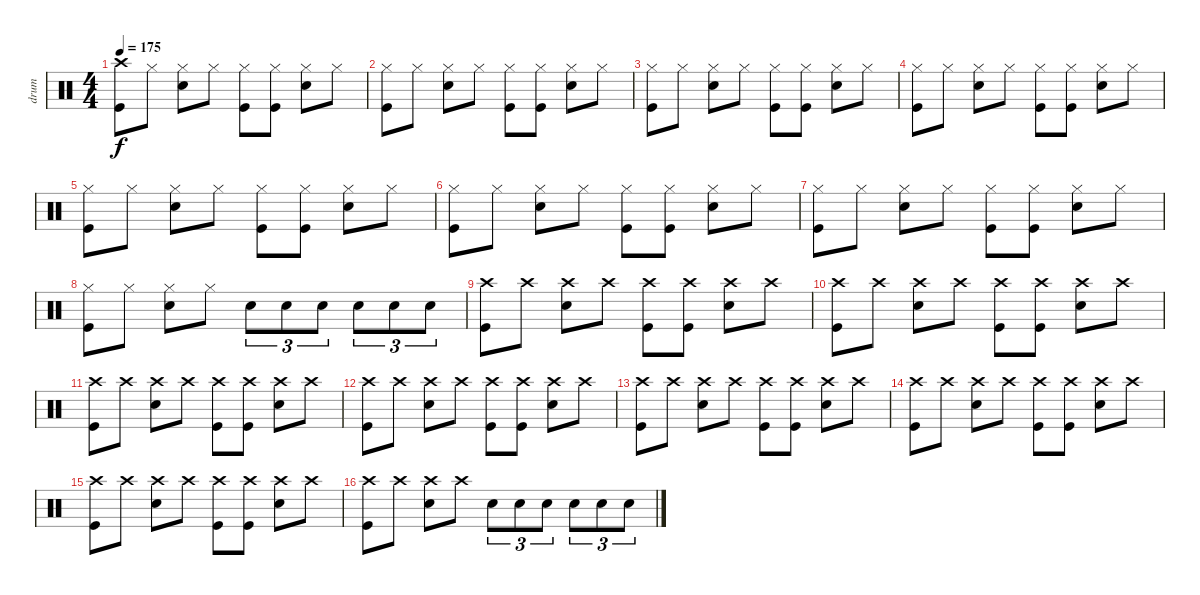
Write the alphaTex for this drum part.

\track ("drum" "drum") {instrument percussion}
\staff {score}
\articulation defaults
\ts (4 4)
\tempo 175
\clef neutral
\ks c
("Crash high (hit)" "Kick (hit)").8{dy f} "Hi-Hat (closed)".8 ("Hi-Hat (closed)" "Snare (hit) 2").8 "Hi-Hat (closed)".8 ("Hi-Hat (closed)" "Kick (hit)").8 ("Hi-Hat (closed)" "Kick (hit)").8 ("Hi-Hat (closed)" "Snare (hit) 2").8 "Hi-Hat (closed)".8 |
("Hi-Hat (closed)" "Kick (hit)").8 "Hi-Hat (closed)".8 ("Hi-Hat (closed)" "Snare (hit) 2").8 "Hi-Hat (closed)".8 ("Hi-Hat (closed)" "Kick (hit)").8 ("Hi-Hat (closed)" "Kick (hit)").8 ("Hi-Hat (closed)" "Snare (hit) 2").8 "Hi-Hat (closed)".8 |
("Hi-Hat (closed)" "Kick (hit)").8 "Hi-Hat (closed)".8 ("Hi-Hat (closed)" "Snare (hit) 2").8 "Hi-Hat (closed)".8 ("Hi-Hat (closed)" "Kick (hit)").8 ("Hi-Hat (closed)" "Kick (hit)").8 ("Hi-Hat (closed)" "Snare (hit) 2").8 "Hi-Hat (closed)".8 |
("Hi-Hat (closed)" "Kick (hit)").8 "Hi-Hat (closed)".8 ("Hi-Hat (closed)" "Snare (hit) 2").8 "Hi-Hat (closed)".8 ("Hi-Hat (closed)" "Kick (hit)").8 ("Hi-Hat (closed)" "Kick (hit)").8 ("Hi-Hat (closed)" "Snare (hit) 2").8 "Hi-Hat (closed)".8 |
("Hi-Hat (closed)" "Kick (hit)").8 "Hi-Hat (closed)".8 ("Hi-Hat (closed)" "Snare (hit) 2").8 "Hi-Hat (closed)".8 ("Hi-Hat (closed)" "Kick (hit)").8 ("Hi-Hat (closed)" "Kick (hit)").8 ("Hi-Hat (closed)" "Snare (hit) 2").8 "Hi-Hat (closed)".8 |
("Hi-Hat (closed)" "Kick (hit)").8 "Hi-Hat (closed)".8 ("Hi-Hat (closed)" "Snare (hit) 2").8 "Hi-Hat (closed)".8 ("Hi-Hat (closed)" "Kick (hit)").8 ("Hi-Hat (closed)" "Kick (hit)").8 ("Hi-Hat (closed)" "Snare (hit) 2").8 "Hi-Hat (closed)".8 |
("Hi-Hat (closed)" "Kick (hit)").8 "Hi-Hat (closed)".8 ("Hi-Hat (closed)" "Snare (hit) 2").8 "Hi-Hat (closed)".8 ("Hi-Hat (closed)" "Kick (hit)").8 ("Hi-Hat (closed)" "Kick (hit)").8 ("Hi-Hat (closed)" "Snare (hit) 2").8 "Hi-Hat (closed)".8 |
("Hi-Hat (closed)" "Kick (hit)").8 "Hi-Hat (closed)".8 ("Hi-Hat (closed)" "Snare (hit) 2").8 "Hi-Hat (closed)".8 "Snare (hit) 2".8{tu (3 2)} "Snare (hit) 2".8{tu (3 2)} "Snare (hit) 2".8{tu (3 2)} "Snare (hit) 2".8{tu (3 2)} "Snare (hit) 2".8{tu (3 2)} "Snare (hit) 2".8{tu (3 2)} |
("Crash high (hit)" "Kick (hit)").8 "Crash high (hit)".8 ("Crash high (hit)" "Snare (hit) 2").8 "Crash high (hit)".8 ("Crash high (hit)" "Kick (hit)").8 ("Crash high (hit)" "Kick (hit)").8 ("Crash high (hit)" "Snare (hit) 2").8 "Crash high (hit)".8 |
("Crash high (hit)" "Kick (hit)").8 "Crash high (hit)".8 ("Crash high (hit)" "Snare (hit) 2").8 "Crash high (hit)".8 ("Crash high (hit)" "Kick (hit)").8 ("Crash high (hit)" "Kick (hit)").8 ("Crash high (hit)" "Snare (hit) 2").8 "Crash high (hit)".8 |
("Crash high (hit)" "Kick (hit)").8 "Crash high (hit)".8 ("Crash high (hit)" "Snare (hit) 2").8 "Crash high (hit)".8 ("Crash high (hit)" "Kick (hit)").8 ("Crash high (hit)" "Kick (hit)").8 ("Crash high (hit)" "Snare (hit) 2").8 "Crash high (hit)".8 |
("Crash high (hit)" "Kick (hit)").8 "Crash high (hit)".8 ("Crash high (hit)" "Snare (hit) 2").8 "Crash high (hit)".8 ("Crash high (hit)" "Kick (hit)").8 ("Crash high (hit)" "Kick (hit)").8 ("Crash high (hit)" "Snare (hit) 2").8 "Crash high (hit)".8 |
("Crash high (hit)" "Kick (hit)").8 "Crash high (hit)".8 ("Crash high (hit)" "Snare (hit) 2").8 "Crash high (hit)".8 ("Crash high (hit)" "Kick (hit)").8 ("Crash high (hit)" "Kick (hit)").8 ("Crash high (hit)" "Snare (hit) 2").8 "Crash high (hit)".8 |
("Crash high (hit)" "Kick (hit)").8 "Crash high (hit)".8 ("Crash high (hit)" "Snare (hit) 2").8 "Crash high (hit)".8 ("Crash high (hit)" "Kick (hit)").8 ("Crash high (hit)" "Kick (hit)").8 ("Crash high (hit)" "Snare (hit) 2").8 "Crash high (hit)".8 |
("Crash high (hit)" "Kick (hit)").8 "Crash high (hit)".8 ("Crash high (hit)" "Snare (hit) 2").8 "Crash high (hit)".8 ("Crash high (hit)" "Kick (hit)").8 ("Crash high (hit)" "Kick (hit)").8 ("Crash high (hit)" "Snare (hit) 2").8 "Crash high (hit)".8 |
("Crash high (hit)" "Kick (hit)").8 "Crash high (hit)".8 ("Crash high (hit)" "Snare (hit) 2").8 "Crash high (hit)".8 "Snare (hit) 2".8{tu (3 2)} "Snare (hit) 2".8{tu (3 2)} "Snare (hit) 2".8{tu (3 2)} "Snare (hit) 2".8{tu (3 2)} "Snare (hit) 2".8{tu (3 2)} "Snare (hit) 2".8{tu (3 2)}
